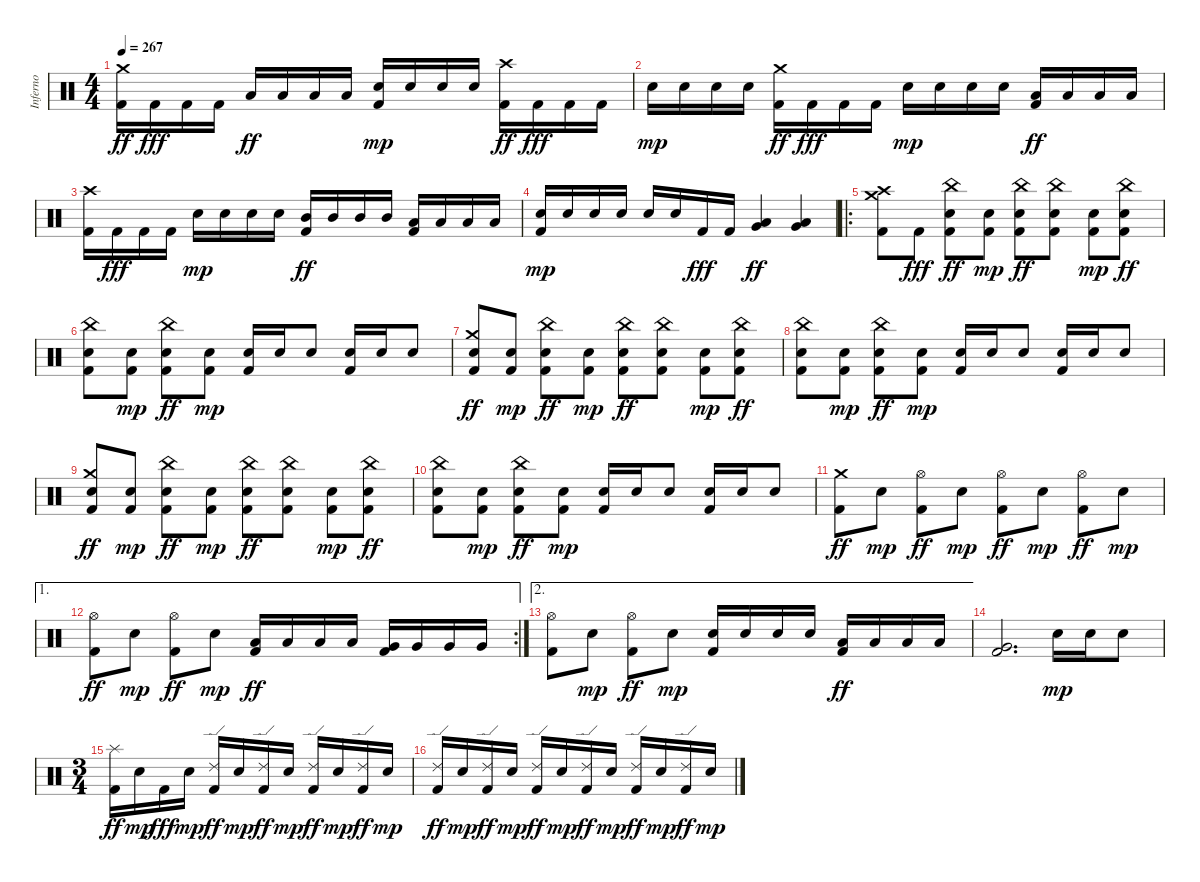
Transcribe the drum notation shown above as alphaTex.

\track ("Inferno" "Inferno") {instrument percussion}
\staff {score}
\articulation defaults
\ts (4 4)
\tempo 267
\clef neutral
\ks c
("Kick (hit) 2" "Crash medium (hit)").16{dy ff} "Kick (hit) 2".16{dy fff} "Kick (hit) 2".16 "Kick (hit) 2".16 "Low Tom (hit)".16{dy ff} "Low Tom (hit)".16 "Low Tom (hit)".16 "Low Tom (hit)".16 ("Kick (hit) 2" "Electric Snare (hit)").16{dy mp} "Electric Snare (hit)".16 "Electric Snare (hit)".16 "Electric Snare (hit)".16 ("Kick (hit) 2" "Crash high (hit)").16{dy ff} "Kick (hit) 2".16{dy fff} "Kick (hit) 2".16 "Kick (hit) 2".16 |
"Electric Snare (hit)".16{dy mp} "Electric Snare (hit)".16 "Electric Snare (hit)".16 "Electric Snare (hit)".16 ("Kick (hit) 2" "Crash medium (hit)").16{dy ff} "Kick (hit) 2".16{dy fff} "Kick (hit) 2".16 "Kick (hit) 2".16 "Electric Snare (hit)".16{dy mp} "Electric Snare (hit)".16 "Electric Snare (hit)".16 "Electric Snare (hit)".16 ("Kick (hit) 2" "Low Tom (hit)").16{dy ff} "Low Tom (hit)".16 "Low Tom (hit)".16 "Low Tom (hit)".16 |
("Kick (hit) 2" "Crash high (hit)").16 "Kick (hit) 2".16{dy fff} "Kick (hit) 2".16 "Kick (hit) 2".16 "Electric Snare (hit)".16{dy mp} "Electric Snare (hit)".16 "Electric Snare (hit)".16 "Electric Snare (hit)".16 ("Kick (hit) 2" "Mid Tom (hit)").16{dy ff} "Mid Tom (hit)".16 "Mid Tom (hit)".16 "Mid Tom (hit)".16 ("Kick (hit) 2" "Low Tom (hit)").16 "Low Tom (hit)".16 "Low Tom (hit)".16 "Low Tom (hit)".16 |
("Kick (hit) 2" "Electric Snare (hit)").16{dy mp} "Electric Snare (hit)".16 "Electric Snare (hit)".16 "Electric Snare (hit)".16 "Electric Snare (hit)".16 "Electric Snare (hit)".16 "Kick (hit) 2".16{dy fff} "Kick (hit) 2".16 ("Very Low Tom (hit)" "Low Floor Tom (hit)").4{dy ff} ("Very Low Tom (hit)" "Low Floor Tom (hit)").4 |
\ro
("Kick (hit) 2" "Crash medium (hit)" "Crash high (hit)").8 "Kick (hit) 2".8{dy fff} ("Kick (hit) 2" "Electric Snare (hit)" "China (hit)").8{dy ff} ("Kick (hit) 2" "Electric Snare (hit)").8{dy mp} ("Kick (hit) 2" "Electric Snare (hit)" "China (hit)").8{dy ff} ("Kick (hit) 2" "Electric Snare (hit)" "China (hit)").8 ("Kick (hit) 2" "Electric Snare (hit)").8{dy mp} ("Kick (hit) 2" "Electric Snare (hit)" "China (hit)").8{dy ff} |
("Kick (hit) 2" "Electric Snare (hit)" "China (hit)").8 ("Kick (hit) 2" "Electric Snare (hit)").8{dy mp} ("Kick (hit) 2" "Electric Snare (hit)" "China (hit)").8{dy ff} ("Kick (hit) 2" "Electric Snare (hit)").8{dy mp} ("Kick (hit) 2" "Electric Snare (hit)").16 "Electric Snare (hit)".16 "Electric Snare (hit)".8 ("Kick (hit) 2" "Electric Snare (hit)").16 "Electric Snare (hit)".16 "Electric Snare (hit)".8 |
("Kick (hit) 2" "Electric Snare (hit)" "Crash medium (hit)").8{dy ff} ("Kick (hit) 2" "Electric Snare (hit)").8{dy mp} ("Kick (hit) 2" "Electric Snare (hit)" "China (hit)").8{dy ff} ("Kick (hit) 2" "Electric Snare (hit)").8{dy mp} ("Kick (hit) 2" "Electric Snare (hit)" "China (hit)").8{dy ff} ("Kick (hit) 2" "Electric Snare (hit)" "China (hit)").8 ("Kick (hit) 2" "Electric Snare (hit)").8{dy mp} ("Kick (hit) 2" "Electric Snare (hit)" "China (hit)").8{dy ff} |
("Kick (hit) 2" "Electric Snare (hit)" "China (hit)").8 ("Kick (hit) 2" "Electric Snare (hit)").8{dy mp} ("Kick (hit) 2" "Electric Snare (hit)" "China (hit)").8{dy ff} ("Kick (hit) 2" "Electric Snare (hit)").8{dy mp} ("Kick (hit) 2" "Electric Snare (hit)").16 "Electric Snare (hit)".16 "Electric Snare (hit)".8 ("Kick (hit) 2" "Electric Snare (hit)").16 "Electric Snare (hit)".16 "Electric Snare (hit)".8 |
("Kick (hit) 2" "Electric Snare (hit)" "Crash medium (hit)").8{dy ff} ("Kick (hit) 2" "Electric Snare (hit)").8{dy mp} ("Kick (hit) 2" "Electric Snare (hit)" "China (hit)").8{dy ff} ("Kick (hit) 2" "Electric Snare (hit)").8{dy mp} ("Kick (hit) 2" "Electric Snare (hit)" "China (hit)").8{dy ff} ("Kick (hit) 2" "Electric Snare (hit)" "China (hit)").8 ("Kick (hit) 2" "Electric Snare (hit)").8{dy mp} ("Kick (hit) 2" "Electric Snare (hit)" "China (hit)").8{dy ff} |
("Kick (hit) 2" "Electric Snare (hit)" "China (hit)").8 ("Kick (hit) 2" "Electric Snare (hit)").8{dy mp} ("Kick (hit) 2" "Electric Snare (hit)" "China (hit)").8{dy ff} ("Kick (hit) 2" "Electric Snare (hit)").8{dy mp} ("Kick (hit) 2" "Electric Snare (hit)").16 "Electric Snare (hit)".16 "Electric Snare (hit)".8 ("Kick (hit) 2" "Electric Snare (hit)").16 "Electric Snare (hit)".16 "Electric Snare (hit)".8 |
("Kick (hit) 2" "Crash medium (hit)").8{dy ff} "Electric Snare (hit)".8{dy mp} ("Kick (hit) 2" "Hi-Hat (open)").8{dy ff} "Electric Snare (hit)".8{dy mp} ("Kick (hit) 2" "Hi-Hat (open)").8{dy ff} "Electric Snare (hit)".8{dy mp} ("Kick (hit) 2" "Hi-Hat (open)").8{dy ff} "Electric Snare (hit)".8{dy mp} |
\ae 1
\rc 2
("Kick (hit) 2" "Hi-Hat (open)").8{dy ff} "Electric Snare (hit)".8{dy mp} ("Kick (hit) 2" "Hi-Hat (open)").8{dy ff} "Electric Snare (hit)".8{dy mp} ("Kick (hit) 2" "Low Tom (hit)").16{dy ff} "Low Tom (hit)".16 "Low Tom (hit)".16 "Low Tom (hit)".16 ("Kick (hit) 2" "Very Low Tom (hit)").16 "Very Low Tom (hit)".16 "Very Low Tom (hit)".16 "Very Low Tom (hit)".16 |
\ae 2
("Kick (hit) 2" "Hi-Hat (open)").8 "Electric Snare (hit)".8{dy mp} ("Kick (hit) 2" "Hi-Hat (open)").8{dy ff} "Electric Snare (hit)".8{dy mp} ("Kick (hit) 2" "Electric Snare (hit)").16 "Electric Snare (hit)".16 "Electric Snare (hit)".16 "Electric Snare (hit)".16 ("Kick (hit) 2" "Low Tom (hit)").16{dy ff} "Low Tom (hit)".16 "Low Tom (hit)".16 "Low Tom (hit)".16 |
("Kick (hit) 2" "Very Low Tom (hit)").2{d} "Electric Snare (hit)".16{dy mp} "Electric Snare (hit)".16 "Electric Snare (hit)".8 |
\ts (3 4)
("Kick (hit) 2" "Splash (hit)").16{dy ff} "Electric Snare (hit)".16{dy mp} "Kick (hit) 2".16{dy fff} "Electric Snare (hit)".16{dy mp} ("Kick (hit) 2" "Ride (edge) 2").16{dy ff} "Electric Snare (hit)".16{dy mp} ("Kick (hit) 2" "Ride (edge) 2").16{dy ff} "Electric Snare (hit)".16{dy mp} ("Kick (hit) 2" "Ride (edge) 2").16{dy ff} "Electric Snare (hit)".16{dy mp} ("Kick (hit) 2" "Ride (edge) 2").16{dy ff} "Electric Snare (hit)".16{dy mp} |
("Kick (hit) 2" "Ride (edge) 2").16{dy ff} "Electric Snare (hit)".16{dy mp} ("Kick (hit) 2" "Ride (edge) 2").16{dy ff} "Electric Snare (hit)".16{dy mp} ("Kick (hit) 2" "Ride (edge) 2").16{dy ff} "Electric Snare (hit)".16{dy mp} ("Kick (hit) 2" "Ride (edge) 2").16{dy ff} "Electric Snare (hit)".16{dy mp} ("Kick (hit) 2" "Ride (edge) 2").16{dy ff} "Electric Snare (hit)".16{dy mp} ("Kick (hit) 2" "Ride (edge) 2").16{dy ff} "Electric Snare (hit)".16{dy mp}
